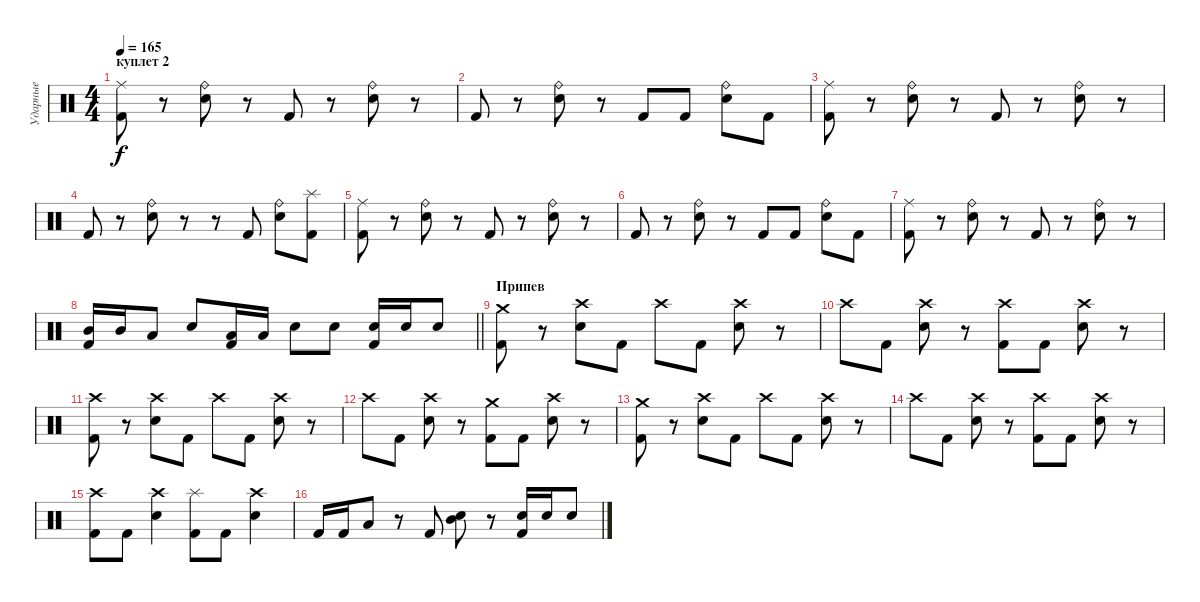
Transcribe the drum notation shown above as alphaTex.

\track ("Ударные" "Ударные") {instrument percussion}
\staff {score}
\articulation defaults
\ts (4 4)
\section ("" "куплет 2")
\tempo 165
\clef neutral
\ks c
("Ride (middle)" "Kick (hit) 2").8{dy f} r.8 ("Ride (bell)" "Snare (hit) 2").8 r.8 "Kick (hit) 2".8 r.8 ("Ride (bell)" "Snare (hit) 2").8 r.8 |
"Kick (hit) 2".8 r.8 ("Ride (bell)" "Snare (hit) 2").8 r.8 "Kick (hit) 2".8 "Kick (hit) 2".8 ("Ride (bell)" "Snare (hit) 2").8 "Kick (hit) 2".8 |
("Ride (middle)" "Kick (hit) 2").8 r.8 ("Ride (bell)" "Snare (hit) 2").8 r.8 "Kick (hit) 2".8 r.8 ("Ride (bell)" "Snare (hit) 2").8 r.8 |
"Kick (hit) 2".8 r.8 ("Ride (bell)" "Snare (hit) 2").8 r.8 r.8 "Kick (hit) 2".8 ("Ride (bell)" "Snare (hit) 2").8 ("Splash (hit)" "Kick (hit) 2").8 |
("Ride (middle)" "Kick (hit) 2").8 r.8 ("Ride (bell)" "Snare (hit) 2").8 r.8 "Kick (hit) 2".8 r.8 ("Ride (bell)" "Snare (hit) 2").8 r.8 |
"Kick (hit) 2".8 r.8 ("Ride (bell)" "Snare (hit) 2").8 r.8 "Kick (hit) 2".8 "Kick (hit) 2".8 ("Ride (bell)" "Snare (hit) 2").8 "Kick (hit) 2".8 |
("Ride (middle)" "Kick (hit) 2").8 r.8 ("Ride (bell)" "Snare (hit) 2").8 r.8 "Kick (hit) 2".8 r.8 ("Ride (bell)" "Snare (hit) 2").8 r.8 |
\barLineRight lightlight
("Mid Tom (hit)" "Kick (hit) 2").16 "Mid Tom (hit)".16 "Low Tom (hit)".8 "Snare (hit) 2".8 ("Low Tom (hit)" "Kick (hit) 2").16 "Low Tom (hit)".16 "Snare (hit) 2".8 "Snare (hit) 2".8 ("Snare (hit) 2" "Kick (hit) 2").16 "Snare (hit) 2".16 "Snare (hit) 2".8 |
\section ("" "Припев")
("Crash medium (hit)" "Kick (hit) 2").8 r.8 ("Crash high (hit)" "Snare (hit) 2").8 "Kick (hit) 2".8 "Crash high (hit)".8 "Kick (hit) 2".8 ("Crash high (hit)" "Snare (hit) 2").8 r.8 |
"Crash high (hit)".8 "Kick (hit) 2".8 ("Crash high (hit)" "Snare (hit) 2").8 r.8 ("Crash high (hit)" "Kick (hit) 2").8 "Kick (hit) 2".8 ("Crash high (hit)" "Snare (hit) 2").8 r.8 |
("Crash high (hit)" "Kick (hit) 2").8 r.8 ("Crash high (hit)" "Snare (hit) 2").8 "Kick (hit) 2".8 "Crash high (hit)".8 "Kick (hit) 2".8 ("Crash high (hit)" "Snare (hit) 2").8 r.8 |
"Crash high (hit)".8 "Kick (hit) 2".8 ("Crash high (hit)" "Snare (hit) 2").8 r.8 ("Crash medium (hit)" "Kick (hit) 2").8 "Kick (hit) 2".8 ("Crash high (hit)" "Snare (hit) 2").8 r.8 |
("Crash medium (hit)" "Kick (hit) 2").8 r.8 ("Crash high (hit)" "Snare (hit) 2").8 "Kick (hit) 2".8 "Crash high (hit)".8 "Kick (hit) 2".8 ("Crash high (hit)" "Snare (hit) 2").8 r.8 |
"Crash high (hit)".8 "Kick (hit) 2".8 ("Crash high (hit)" "Snare (hit) 2").8 r.8 ("Crash high (hit)" "Kick (hit) 2").8 "Kick (hit) 2".8 ("Crash high (hit)" "Snare (hit) 2").8 r.8 |
("Crash high (hit)" "Kick (hit) 2").8 "Kick (hit) 2".8 ("Crash high (hit)" "Snare (hit) 2").4 ("Splash (hit)" "Kick (hit) 2").8 "Kick (hit) 2".8 ("Crash high (hit)" "Snare (hit) 2").4 |
"Kick (hit) 2".16 "Kick (hit) 2".16 "Low Tom (hit)".8 r.8 "Kick (hit) 2".8 ("Snare (hit) 2" "Mid Tom (hit)").8 r.8 ("Snare (hit) 2" "Kick (hit) 2").16 "Snare (hit) 2".16 "Snare (hit) 2".8
